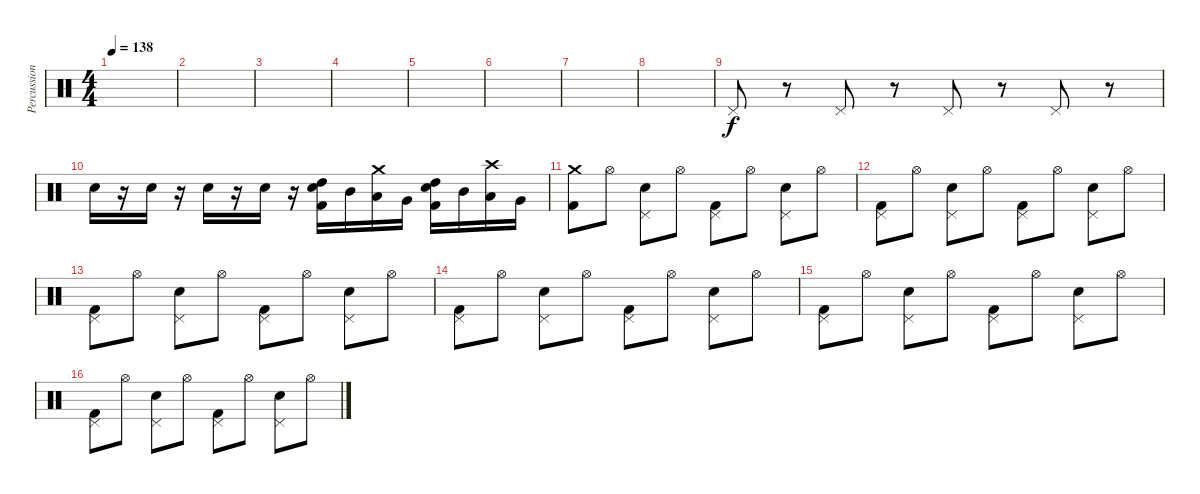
\track ("Percussion" "Percussion") {instrument percussion}
\staff {score}
\articulation defaults
\ts (4 4)
\tempo 138
\clef neutral
\ks c
|
|
|
|
|
|
|
|
"Pedal Hi-Hat (hit)".8 r.8 "Pedal Hi-Hat (hit)".8 r.8 "Pedal Hi-Hat (hit)".8 r.8 "Pedal Hi-Hat (hit)".8 r.8{volume 5} |
"Snare (hit) 2".16{volume 13} r.16 "Snare (hit) 2".16 r.16 "Snare (hit) 2".16 r.16 "Snare (hit) 2".16 r.16 ("High Tom (hit)" "Snare (hit) 2" "Kick (hit) 2").16 "Mid Tom (hit)".16 ("Crash medium (hit)" "Low Tom (hit)").16 "Very Low Tom (hit)".16 ("High Tom (hit)" "Snare (hit) 2" "Kick (hit) 2").16 "Mid Tom (hit)".16 ("Crash high (hit)" "Low Tom (hit)").16 "Very Low Tom (hit)".16 |
("Crash medium (hit)" "Kick (hit) 2").8 "Hi-Hat (open)".8 ("Pedal Hi-Hat (hit)" "Snare (hit) 2").8 "Hi-Hat (open)".8 ("Pedal Hi-Hat (hit)" "Kick (hit) 2").8 "Hi-Hat (open)".8 ("Pedal Hi-Hat (hit)" "Snare (hit) 2").8 "Hi-Hat (open)".8 |
("Pedal Hi-Hat (hit)" "Kick (hit) 2").8 "Hi-Hat (open)".8 ("Pedal Hi-Hat (hit)" "Snare (hit) 2").8 "Hi-Hat (open)".8 ("Pedal Hi-Hat (hit)" "Kick (hit) 2").8 "Hi-Hat (open)".8 ("Pedal Hi-Hat (hit)" "Snare (hit) 2").8 "Hi-Hat (open)".8 |
("Pedal Hi-Hat (hit)" "Kick (hit) 2").8 "Hi-Hat (open)".8 ("Pedal Hi-Hat (hit)" "Snare (hit) 2").8 "Hi-Hat (open)".8 ("Pedal Hi-Hat (hit)" "Kick (hit) 2").8 "Hi-Hat (open)".8 ("Pedal Hi-Hat (hit)" "Snare (hit) 2").8 "Hi-Hat (open)".8 |
("Pedal Hi-Hat (hit)" "Kick (hit) 2").8 "Hi-Hat (open)".8 ("Pedal Hi-Hat (hit)" "Snare (hit) 2").8 "Hi-Hat (open)".8 ("Pedal Hi-Hat (hit)" "Kick (hit) 2").8 "Hi-Hat (open)".8 ("Pedal Hi-Hat (hit)" "Snare (hit) 2").8 "Hi-Hat (open)".8 |
("Pedal Hi-Hat (hit)" "Kick (hit) 2").8 "Hi-Hat (open)".8 ("Pedal Hi-Hat (hit)" "Snare (hit) 2").8 "Hi-Hat (open)".8 ("Pedal Hi-Hat (hit)" "Kick (hit) 2").8 "Hi-Hat (open)".8 ("Pedal Hi-Hat (hit)" "Snare (hit) 2").8 "Hi-Hat (open)".8 |
("Pedal Hi-Hat (hit)" "Kick (hit) 2").8 "Hi-Hat (open)".8 ("Pedal Hi-Hat (hit)" "Snare (hit) 2").8 "Hi-Hat (open)".8 ("Pedal Hi-Hat (hit)" "Kick (hit) 2").8 "Hi-Hat (open)".8 ("Pedal Hi-Hat (hit)" "Snare (hit) 2").8 "Hi-Hat (open)".8
